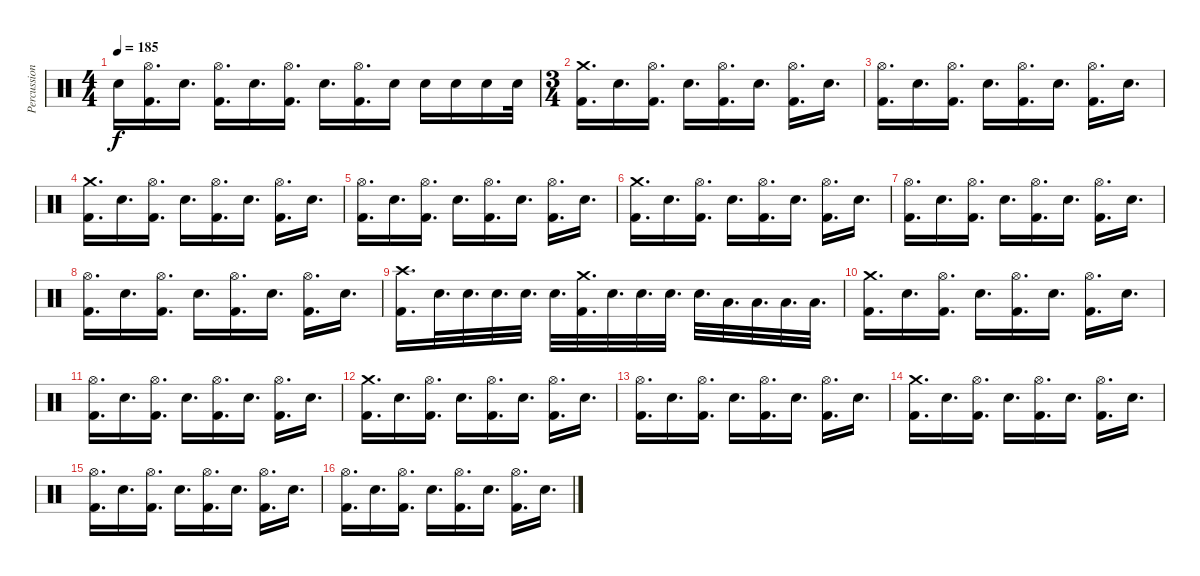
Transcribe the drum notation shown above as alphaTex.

\track ("Percussion" "Percussion") {instrument percussion}
\staff {score}
\articulation defaults
\ts (4 4)
\tempo 185
\clef neutral
\ks c "Snare (hit)"{t}.16{dy f}
("Hi-Hat (open)" "Kick (hit) 2").16{d} "Electric Snare (hit)".16{d} ("Hi-Hat (open)" "Kick (hit) 2").16{d} "Electric Snare (hit)".16{d} ("Hi-Hat (open)" "Kick (hit) 2").16{d} "Electric Snare (hit)".16{d} ("Hi-Hat (open)" "Kick (hit) 2").16{d} "Electric Snare (hit)".16 "Electric Snare (hit)".16 "Electric Snare (hit)".16 "Electric Snare (hit)".16 "Electric Snare (hit)".32 |
\ts (3 4)
("Crash medium (hit)" "Kick (hit) 2").16{d} "Electric Snare (hit)".16{d} ("Hi-Hat (open)" "Kick (hit) 2").16{d} "Electric Snare (hit)".16{d} ("Hi-Hat (open)" "Kick (hit) 2").16{d} "Electric Snare (hit)".16{d} ("Hi-Hat (open)" "Kick (hit) 2").16{d} "Electric Snare (hit)".16{d} |
("Hi-Hat (open)" "Kick (hit) 2").16{d} "Electric Snare (hit)".16{d} ("Hi-Hat (open)" "Kick (hit) 2").16{d} "Electric Snare (hit)".16{d} ("Hi-Hat (open)" "Kick (hit) 2").16{d} "Electric Snare (hit)".16{d} ("Hi-Hat (open)" "Kick (hit) 2").16{d} "Electric Snare (hit)".16{d} |
("Crash medium (hit)" "Kick (hit) 2").16{d} "Electric Snare (hit)".16{d} ("Hi-Hat (open)" "Kick (hit) 2").16{d} "Electric Snare (hit)".16{d} ("Hi-Hat (open)" "Kick (hit) 2").16{d} "Electric Snare (hit)".16{d} ("Hi-Hat (open)" "Kick (hit) 2").16{d} "Electric Snare (hit)".16{d} |
("Hi-Hat (open)" "Kick (hit) 2").16{d} "Electric Snare (hit)".16{d} ("Hi-Hat (open)" "Kick (hit) 2").16{d} "Electric Snare (hit)".16{d} ("Hi-Hat (open)" "Kick (hit) 2").16{d} "Electric Snare (hit)".16{d} ("Hi-Hat (open)" "Kick (hit) 2").16{d} "Electric Snare (hit)".16{d} |
("Crash medium (hit)" "Kick (hit) 2").16{d} "Electric Snare (hit)".16{d} ("Hi-Hat (open)" "Kick (hit) 2").16{d} "Electric Snare (hit)".16{d} ("Hi-Hat (open)" "Kick (hit) 2").16{d} "Electric Snare (hit)".16{d} ("Hi-Hat (open)" "Kick (hit) 2").16{d} "Electric Snare (hit)".16{d} |
("Hi-Hat (open)" "Kick (hit) 2").16{d} "Electric Snare (hit)".16{d} ("Hi-Hat (open)" "Kick (hit) 2").16{d} "Electric Snare (hit)".16{d} ("Hi-Hat (open)" "Kick (hit) 2").16{d} "Electric Snare (hit)".16{d} ("Hi-Hat (open)" "Kick (hit) 2").16{d} "Electric Snare (hit)".16{d} |
("Hi-Hat (open)" "Kick (hit) 2").16{d} "Electric Snare (hit)".16{d} ("Hi-Hat (open)" "Kick (hit) 2").16{d} "Electric Snare (hit)".16{d} ("Hi-Hat (open)" "Kick (hit) 2").16{d} "Electric Snare (hit)".16{d} ("Hi-Hat (open)" "Kick (hit) 2").16{d} "Electric Snare (hit)".16{d} |
("Crash high (hit)" "Kick (hit) 2").16{d} "Electric Snare (hit)".32{d} "Electric Snare (hit)".32{d} "Electric Snare (hit)".32{d} "Electric Snare (hit)".32{d} "Electric Snare (hit)".32{d} ("Crash medium (hit)" "Kick (hit) 2").32{d} "Electric Snare (hit)".32{d} "Electric Snare (hit)".32{d} "Electric Snare (hit)".32{d} "Electric Snare (hit)".32{d} "Low Tom (hit)".32{d} "Low Tom (hit)".32{d} "Low Tom (hit)".32{d} "Low Tom (hit)".32{d} |
("Crash medium (hit)" "Kick (hit) 2").16{d} "Electric Snare (hit)".16{d} ("Hi-Hat (open)" "Kick (hit) 2").16{d} "Electric Snare (hit)".16{d} ("Hi-Hat (open)" "Kick (hit) 2").16{d} "Electric Snare (hit)".16{d} ("Hi-Hat (open)" "Kick (hit) 2").16{d} "Electric Snare (hit)".16{d} |
("Hi-Hat (open)" "Kick (hit) 2").16{d} "Electric Snare (hit)".16{d} ("Hi-Hat (open)" "Kick (hit) 2").16{d} "Electric Snare (hit)".16{d} ("Hi-Hat (open)" "Kick (hit) 2").16{d} "Electric Snare (hit)".16{d} ("Hi-Hat (open)" "Kick (hit) 2").16{d} "Electric Snare (hit)".16{d} |
("Crash medium (hit)" "Kick (hit) 2").16{d} "Electric Snare (hit)".16{d} ("Hi-Hat (open)" "Kick (hit) 2").16{d} "Electric Snare (hit)".16{d} ("Hi-Hat (open)" "Kick (hit) 2").16{d} "Electric Snare (hit)".16{d} ("Hi-Hat (open)" "Kick (hit) 2").16{d} "Electric Snare (hit)".16{d} |
("Hi-Hat (open)" "Kick (hit) 2").16{d} "Electric Snare (hit)".16{d} ("Hi-Hat (open)" "Kick (hit) 2").16{d} "Electric Snare (hit)".16{d} ("Hi-Hat (open)" "Kick (hit) 2").16{d} "Electric Snare (hit)".16{d} ("Hi-Hat (open)" "Kick (hit) 2").16{d} "Electric Snare (hit)".16{d} |
("Crash medium (hit)" "Kick (hit) 2").16{d} "Electric Snare (hit)".16{d} ("Hi-Hat (open)" "Kick (hit) 2").16{d} "Electric Snare (hit)".16{d} ("Hi-Hat (open)" "Kick (hit) 2").16{d} "Electric Snare (hit)".16{d} ("Hi-Hat (open)" "Kick (hit) 2").16{d} "Electric Snare (hit)".16{d} |
("Hi-Hat (open)" "Kick (hit) 2").16{d} "Electric Snare (hit)".16{d} ("Hi-Hat (open)" "Kick (hit) 2").16{d} "Electric Snare (hit)".16{d} ("Hi-Hat (open)" "Kick (hit) 2").16{d} "Electric Snare (hit)".16{d} ("Hi-Hat (open)" "Kick (hit) 2").16{d} "Electric Snare (hit)".16{d} |
("Hi-Hat (open)" "Kick (hit) 2").16{d} "Electric Snare (hit)".16{d} ("Hi-Hat (open)" "Kick (hit) 2").16{d} "Electric Snare (hit)".16{d} ("Hi-Hat (open)" "Kick (hit) 2").16{d} "Electric Snare (hit)".16{d} ("Hi-Hat (open)" "Kick (hit) 2").16{d} "Electric Snare (hit)".16{d}
